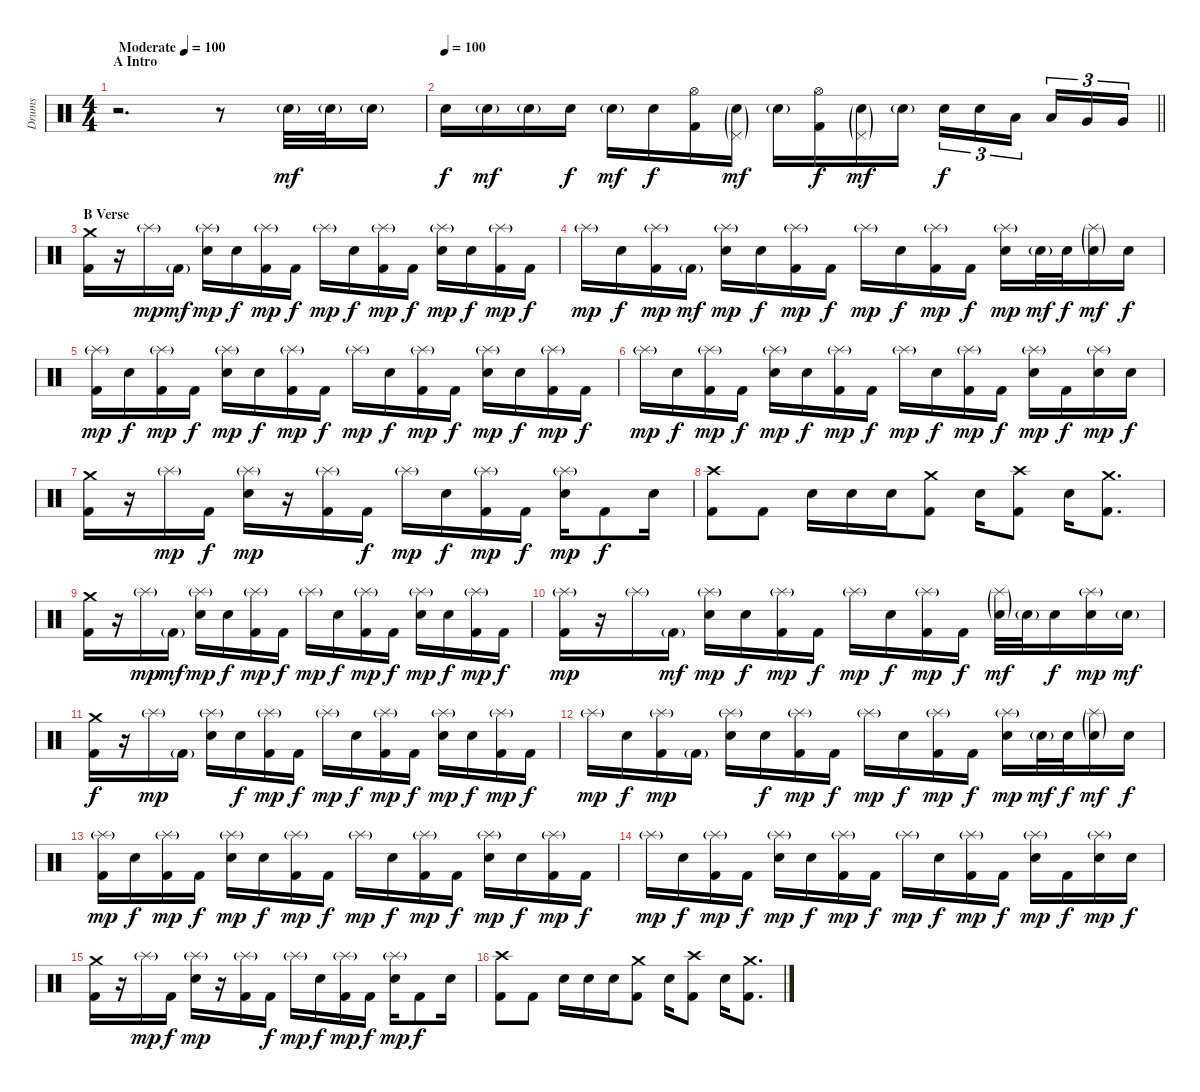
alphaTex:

\track ("Drums" "Drums") {instrument percussion}
\staff {score}
\articulation defaults
\ts (4 4)
\section ("" "A Intro")
\tempo (100 "Moderate")
\clef neutral
\ks c
r.2{d dy mf} r.8 "Electric Snare (hit)"{g}.32 "Electric Snare (hit)"{g}.32 "Electric Snare (hit)"{g}.16 |
\tempo 100
\barLineRight lightlight "Electric Snare (hit)".16{dy f} "Electric Snare (hit)"{g}.16{dy mf} "Electric Snare (hit)"{g}.16 "Electric Snare (hit)".16{dy f} "Electric Snare (hit)"{g}.16{dy mf} "Electric Snare (hit)".16{dy f}
("Hi-Hat (open)" "Kick (hit) 2").16 ("Pedal Hi-Hat (hit)"{g} "Electric Snare (hit)"{g}).16{dy mf} "Electric Snare (hit)"{g}.16 ("Hi-Hat (open)" "Kick (hit) 2").16{dy f} ("Pedal Hi-Hat (hit)"{g} "Electric Snare (hit)"{g}).16{dy mf} "Electric Snare (hit)"{g}.16 "Electric Snare (hit)".16{tu (3 2) dy f} "Electric Snare (hit)".16{tu (3 2)} "Low Tom (hit)".16{tu (3 2) beam splitsecondary} "Low Tom (hit)".16{tu (3 2)} "Very Low Tom (hit)".16{tu (3 2)} "Very Low Tom (hit)".16{tu (3 2)} |
\section ("" "B Verse")
("Crash medium (hit)" "Kick (hit) 2").16 r.16 "Splash (hit)"{g}.16{dy mp} "Kick (hit) 2"{g}.16{dy mf} ("Splash (hit)"{g} "Electric Snare (hit)").16{dy mp} "Electric Snare (hit)".16{dy f} ("Splash (hit)"{g} "Kick (hit) 2").16{dy mp} "Kick (hit) 2".16{dy f} "Splash (hit)"{g}.16{dy mp} "Electric Snare (hit)".16{dy f} ("Splash (hit)"{g} "Kick (hit) 2").16{dy mp} "Kick (hit) 2".16{dy f} ("Splash (hit)"{g} "Electric Snare (hit)").16{dy mp} "Electric Snare (hit)".16{dy f} ("Splash (hit)"{g} "Kick (hit) 2").16{dy mp} "Kick (hit) 2".16{dy f} |
"Splash (hit)"{g}.16{dy mp} "Electric Snare (hit)".16{dy f} ("Splash (hit)"{g} "Kick (hit) 2").16{dy mp} "Kick (hit) 2"{g}.16{dy mf} ("Splash (hit)"{g} "Electric Snare (hit)").16{dy mp} "Electric Snare (hit)".16{dy f} ("Splash (hit)"{g} "Kick (hit) 2").16{dy mp} "Kick (hit) 2".16{dy f} "Splash (hit)"{g}.16{dy mp} "Electric Snare (hit)".16{dy f} ("Splash (hit)"{g} "Kick (hit) 2").16{dy mp} "Kick (hit) 2".16{dy f} ("Splash (hit)"{g} "Electric Snare (hit)").16{dy mp} "Electric Snare (hit)"{g}.32{dy mf} "Electric Snare (hit)".32{dy f} ("Splash (hit)"{g} "Electric Snare (hit)"{g}).16{dy mf} "Electric Snare (hit)".16{dy f} |
("Splash (hit)"{g} "Kick (hit) 2").16{dy mp} "Electric Snare (hit)".16{dy f} ("Splash (hit)"{g} "Kick (hit) 2").16{dy mp} "Kick (hit) 2".16{dy f} ("Splash (hit)"{g} "Electric Snare (hit)").16{dy mp} "Electric Snare (hit)".16{dy f} ("Splash (hit)"{g} "Kick (hit) 2").16{dy mp} "Kick (hit) 2".16{dy f} "Splash (hit)"{g}.16{dy mp} "Electric Snare (hit)".16{dy f} ("Splash (hit)"{g} "Kick (hit) 2").16{dy mp} "Kick (hit) 2".16{dy f} ("Splash (hit)"{g} "Electric Snare (hit)").16{dy mp} "Electric Snare (hit)".16{dy f} ("Splash (hit)"{g} "Kick (hit) 2").16{dy mp} "Kick (hit) 2".16{dy f} |
"Splash (hit)"{g}.16{dy mp} "Electric Snare (hit)".16{dy f} ("Splash (hit)"{g} "Kick (hit) 2").16{dy mp} "Kick (hit) 2".16{dy f} ("Splash (hit)"{g} "Electric Snare (hit)").16{dy mp} "Electric Snare (hit)".16{dy f} ("Splash (hit)"{g} "Kick (hit) 2").16{dy mp} "Kick (hit) 2".16{dy f} "Splash (hit)"{g}.16{dy mp} "Electric Snare (hit)".16{dy f} ("Splash (hit)"{g} "Kick (hit) 2").16{dy mp} "Kick (hit) 2".16{dy f} ("Splash (hit)"{g} "Electric Snare (hit)").16{dy mp} "Kick (hit) 2".16{dy f} ("Splash (hit)"{g} "Electric Snare (hit)").16{dy mp} "Electric Snare (hit)".16{dy f} |
("Crash medium (hit)" "Kick (hit) 2").16 r.16 "Splash (hit)"{g}.16{dy mp} "Kick (hit) 2".16{dy f} ("Splash (hit)"{g} "Electric Snare (hit)").16{dy mp} r.16 ("Splash (hit)"{g} "Kick (hit) 2").16 "Kick (hit) 2".16{dy f} "Splash (hit)"{g}.16{dy mp} "Electric Snare (hit)".16{dy f} ("Splash (hit)"{g} "Kick (hit) 2").16{dy mp} "Kick (hit) 2".16{dy f} ("Splash (hit)"{g} "Electric Snare (hit)").16{dy mp} "Kick (hit) 2".8{dy f} "Electric Snare (hit)".16 |
("Crash high (hit)" "Kick (hit) 2").8 "Kick (hit) 2".8 "Electric Snare (hit)".16 "Electric Snare (hit)".16 "Electric Snare (hit)".16 ("Crash medium (hit)" "Kick (hit) 2").8 "Electric Snare (hit)".16 ("Crash high (hit)" "Kick (hit) 2").8 "Electric Snare (hit)".16 ("Crash medium (hit)" "Kick (hit) 2").8{d} |
("Crash medium (hit)" "Kick (hit) 2").16 r.16 "Splash (hit)"{g}.16{dy mp} "Kick (hit) 2"{g}.16{dy mf} ("Splash (hit)"{g} "Electric Snare (hit)").16{dy mp} "Electric Snare (hit)".16{dy f} ("Splash (hit)"{g} "Kick (hit) 2").16{dy mp} "Kick (hit) 2".16{dy f} "Splash (hit)"{g}.16{dy mp} "Electric Snare (hit)".16{dy f} ("Splash (hit)"{g} "Kick (hit) 2").16{dy mp} "Kick (hit) 2".16{dy f} ("Splash (hit)"{g} "Electric Snare (hit)").16{dy mp} "Electric Snare (hit)".16{dy f} ("Splash (hit)"{g} "Kick (hit) 2").16{dy mp} "Kick (hit) 2".16{dy f} |
("Splash (hit)"{g} "Kick (hit) 2").16{dy mp} r.16 "Splash (hit)"{g}.16 "Kick (hit) 2"{g}.16{dy mf} ("Splash (hit)"{g} "Electric Snare (hit)").16{dy mp} "Electric Snare (hit)".16{dy f} ("Splash (hit)"{g} "Kick (hit) 2").16{dy mp} "Kick (hit) 2".16{dy f} "Splash (hit)"{g}.16{dy mp} "Electric Snare (hit)".16{dy f} ("Splash (hit)"{g} "Kick (hit) 2").16{dy mp} "Kick (hit) 2".16{dy f} ("Splash (hit)"{g} "Electric Snare (hit)"{g}).32{dy mf} "Electric Snare (hit)"{g}.32 "Electric Snare (hit)".16{dy f} ("Splash (hit)"{g} "Electric Snare (hit)").16{dy mp} "Electric Snare (hit)"{g}.16{dy mf} |
("Crash medium (hit)" "Kick (hit) 2").16{dy f} r.16 "Splash (hit)"{g}.16{dy mp} "Kick (hit) 2"{g}.16 ("Splash (hit)"{g} "Electric Snare (hit)").16 "Electric Snare (hit)".16{dy f} ("Splash (hit)"{g} "Kick (hit) 2").16{dy mp} "Kick (hit) 2".16{dy f} "Splash (hit)"{g}.16{dy mp} "Electric Snare (hit)".16{dy f} ("Splash (hit)"{g} "Kick (hit) 2").16{dy mp} "Kick (hit) 2".16{dy f} ("Splash (hit)"{g} "Electric Snare (hit)").16{dy mp} "Electric Snare (hit)".16{dy f} ("Splash (hit)"{g} "Kick (hit) 2").16{dy mp} "Kick (hit) 2".16{dy f} |
"Splash (hit)"{g}.16{dy mp} "Electric Snare (hit)".16{dy f} ("Splash (hit)"{g} "Kick (hit) 2").16{dy mp} "Kick (hit) 2"{g}.16 ("Splash (hit)"{g} "Electric Snare (hit)").16 "Electric Snare (hit)".16{dy f} ("Splash (hit)"{g} "Kick (hit) 2").16{dy mp} "Kick (hit) 2".16{dy f} "Splash (hit)"{g}.16{dy mp} "Electric Snare (hit)".16{dy f} ("Splash (hit)"{g} "Kick (hit) 2").16{dy mp} "Kick (hit) 2".16{dy f} ("Splash (hit)"{g} "Electric Snare (hit)").16{dy mp} "Electric Snare (hit)"{g}.32{dy mf} "Electric Snare (hit)".32{dy f} ("Splash (hit)"{g} "Electric Snare (hit)"{g}).16{dy mf} "Electric Snare (hit)".16{dy f} |
("Splash (hit)"{g} "Kick (hit) 2").16{dy mp} "Electric Snare (hit)".16{dy f} ("Splash (hit)"{g} "Kick (hit) 2").16{dy mp} "Kick (hit) 2".16{dy f} ("Splash (hit)"{g} "Electric Snare (hit)").16{dy mp} "Electric Snare (hit)".16{dy f} ("Splash (hit)"{g} "Kick (hit) 2").16{dy mp} "Kick (hit) 2".16{dy f} "Splash (hit)"{g}.16{dy mp} "Electric Snare (hit)".16{dy f} ("Splash (hit)"{g} "Kick (hit) 2").16{dy mp} "Kick (hit) 2".16{dy f} ("Splash (hit)"{g} "Electric Snare (hit)").16{dy mp} "Electric Snare (hit)".16{dy f} ("Splash (hit)"{g} "Kick (hit) 2").16{dy mp} "Kick (hit) 2".16{dy f} |
"Splash (hit)"{g}.16{dy mp} "Electric Snare (hit)".16{dy f} ("Splash (hit)"{g} "Kick (hit) 2").16{dy mp} "Kick (hit) 2".16{dy f} ("Splash (hit)"{g} "Electric Snare (hit)").16{dy mp} "Electric Snare (hit)".16{dy f} ("Splash (hit)"{g} "Kick (hit) 2").16{dy mp} "Kick (hit) 2".16{dy f} "Splash (hit)"{g}.16{dy mp} "Electric Snare (hit)".16{dy f} ("Splash (hit)"{g} "Kick (hit) 2").16{dy mp} "Kick (hit) 2".16{dy f} ("Splash (hit)"{g} "Electric Snare (hit)").16{dy mp} "Kick (hit) 2".16{dy f} ("Splash (hit)"{g} "Electric Snare (hit)").16{dy mp} "Electric Snare (hit)".16{dy f} |
("Crash medium (hit)" "Kick (hit) 2").16 r.16 "Splash (hit)"{g}.16{dy mp} "Kick (hit) 2".16{dy f} ("Splash (hit)"{g} "Electric Snare (hit)").16{dy mp} r.16 ("Splash (hit)"{g} "Kick (hit) 2").16 "Kick (hit) 2".16{dy f} "Splash (hit)"{g}.16{dy mp} "Electric Snare (hit)".16{dy f} ("Splash (hit)"{g} "Kick (hit) 2").16{dy mp} "Kick (hit) 2".16{dy f} ("Splash (hit)"{g} "Electric Snare (hit)").16{dy mp} "Kick (hit) 2".8{dy f} "Electric Snare (hit)".16 |
("Crash high (hit)" "Kick (hit) 2").8 "Kick (hit) 2".8 "Electric Snare (hit)".16 "Electric Snare (hit)".16 "Electric Snare (hit)".16 ("Crash medium (hit)" "Kick (hit) 2").8 "Electric Snare (hit)".16 ("Crash high (hit)" "Kick (hit) 2").8 "Electric Snare (hit)".16 ("Crash medium (hit)" "Kick (hit) 2").8{d}
